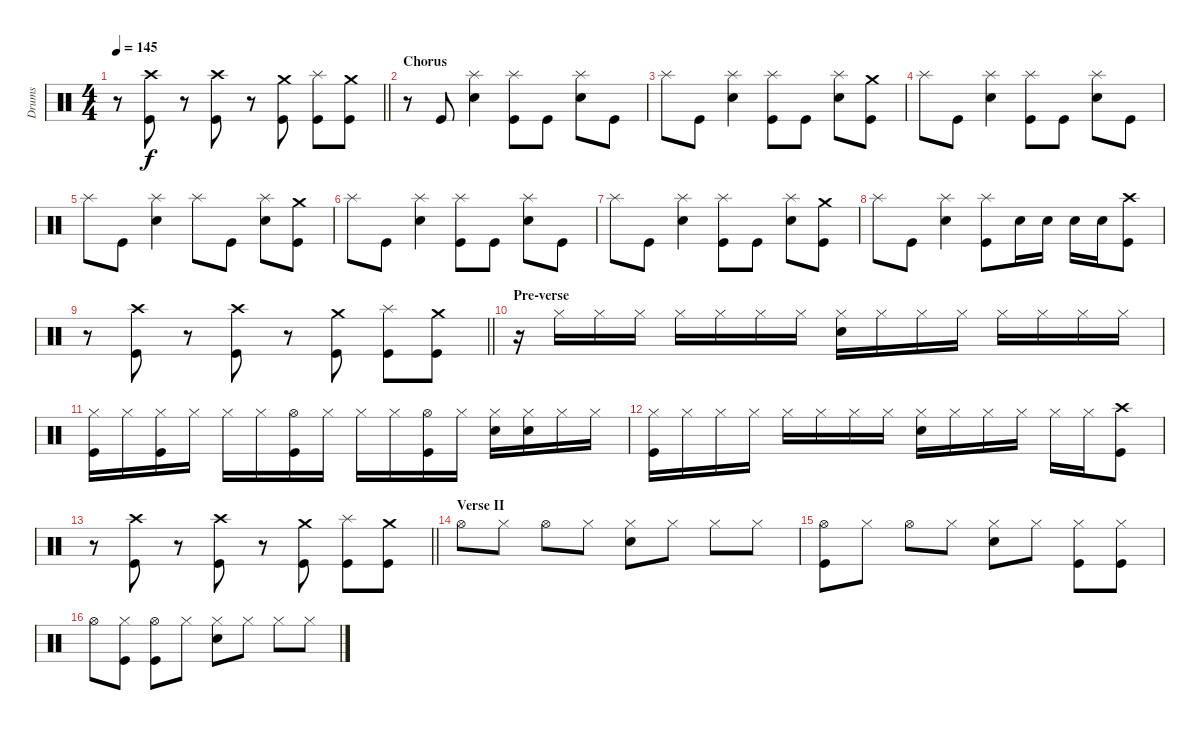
\track ("Drums" "Drums") {instrument percussion}
\staff {score}
\articulation defaults
\ts (4 4)
\tempo 145
\clef neutral
\barLineRight lightlight
\ks c
r.8{dy f} ("Crash high (hit)" "Kick (hit)").8 r.8 ("Crash high (hit)" "Kick (hit)").8 r.8 ("Crash medium (hit)" "Kick (hit)").8 ("Splash (hit)" "Kick (hit)").8 ("Crash medium (hit)" "Kick (hit)").8 |
\section ("" "Chorus")
r.8 "Kick (hit)".8 ("Splash (hit)" "Electric Snare (hit)").4 ("Splash (hit)" "Kick (hit)").8 "Kick (hit)".8 ("Splash (hit)" "Electric Snare (hit)").8 "Kick (hit)".8 |
"Splash (hit)".8 "Kick (hit)".8 ("Splash (hit)" "Electric Snare (hit)").4 ("Splash (hit)" "Kick (hit)").8 "Kick (hit)".8 ("Splash (hit)" "Electric Snare (hit)").8 ("Crash medium (hit)" "Kick (hit)").8 |
"Splash (hit)".8 "Kick (hit)".8 ("Splash (hit)" "Electric Snare (hit)").4 ("Splash (hit)" "Kick (hit)").8 "Kick (hit)".8 ("Splash (hit)" "Electric Snare (hit)").8 "Kick (hit)".8 |
"Splash (hit)".8 "Kick (hit)".8 ("Splash (hit)" "Electric Snare (hit)").4 "Splash (hit)".8 "Kick (hit)".8 ("Splash (hit)" "Electric Snare (hit)").8 ("Crash medium (hit)" "Kick (hit)").8 |
"Splash (hit)".8 "Kick (hit)".8 ("Splash (hit)" "Electric Snare (hit)").4 ("Splash (hit)" "Kick (hit)").8 "Kick (hit)".8 ("Splash (hit)" "Electric Snare (hit)").8 "Kick (hit)".8 |
"Splash (hit)".8 "Kick (hit)".8 ("Splash (hit)" "Electric Snare (hit)").4 ("Splash (hit)" "Kick (hit)").8 "Kick (hit)".8 ("Splash (hit)" "Electric Snare (hit)").8 ("Crash medium (hit)" "Kick (hit)").8 |
"Splash (hit)".8 "Kick (hit)".8 ("Splash (hit)" "Electric Snare (hit)").4 ("Splash (hit)" "Kick (hit)").8 "Electric Snare (hit)".16 "Electric Snare (hit)".16 "Electric Snare (hit)".16 "Electric Snare (hit)".16 ("Crash high (hit)" "Kick (hit)").8 |
\barLineRight lightlight
r.8 ("Crash high (hit)" "Kick (hit)").8 r.8 ("Crash high (hit)" "Kick (hit)").8 r.8 ("Crash medium (hit)" "Kick (hit)").8 ("Splash (hit)" "Kick (hit)").8 ("Crash medium (hit)" "Kick (hit)").8 |
\section ("" "Pre-verse")
r.16 "Hi-Hat (closed)".16 "Hi-Hat (closed)".16 "Hi-Hat (closed)".16 "Hi-Hat (closed)".16 "Hi-Hat (closed)".16 "Hi-Hat (closed)".16 "Hi-Hat (closed)".16 ("Hi-Hat (closed)" "Electric Snare (hit)").16 "Hi-Hat (closed)".16 "Hi-Hat (closed)".16 "Hi-Hat (closed)".16 "Hi-Hat (closed)".16 "Hi-Hat (closed)".16 "Hi-Hat (closed)".16 "Hi-Hat (closed)".16 |
("Hi-Hat (closed)" "Kick (hit)").16 "Hi-Hat (closed)".16 ("Hi-Hat (closed)" "Kick (hit)").16 "Hi-Hat (closed)".16 "Hi-Hat (closed)".16 "Hi-Hat (closed)".16 ("Hi-Hat (open)" "Kick (hit)").16 "Hi-Hat (closed)".16 "Hi-Hat (closed)".16 "Hi-Hat (closed)".16 ("Hi-Hat (open)" "Kick (hit)").16 "Hi-Hat (closed)".16 ("Hi-Hat (closed)" "Electric Snare (hit)").16 ("Hi-Hat (closed)" "Electric Snare (hit)").16 "Hi-Hat (closed)".16 "Hi-Hat (closed)".16 |
("Hi-Hat (closed)" "Kick (hit)").16 "Hi-Hat (closed)".16 "Hi-Hat (closed)".16 "Hi-Hat (closed)".16 "Hi-Hat (closed)".16 "Hi-Hat (closed)".16 "Hi-Hat (closed)".16 "Hi-Hat (closed)".16 ("Hi-Hat (closed)" "Electric Snare (hit)").16 "Hi-Hat (closed)".16 "Hi-Hat (closed)".16 "Hi-Hat (closed)".16 "Hi-Hat (closed)".16 "Hi-Hat (closed)".16 ("Crash high (hit)" "Kick (hit)").8 |
\barLineRight lightlight
r.8 ("Crash high (hit)" "Kick (hit)").8 r.8 ("Crash high (hit)" "Kick (hit)").8 r.8 ("Crash medium (hit)" "Kick (hit)").8 ("Splash (hit)" "Kick (hit)").8 ("Crash medium (hit)" "Kick (hit)").8 |
\section ("" "Verse II")
"Hi-Hat (open)".8 "Hi-Hat (closed)".8 "Hi-Hat (open)".8 "Hi-Hat (closed)".8 ("Hi-Hat (closed)" "Electric Snare (hit)").8 "Hi-Hat (closed)".8 "Hi-Hat (closed)".8 "Hi-Hat (closed)".8 |
("Hi-Hat (open)" "Kick (hit)").8 "Hi-Hat (closed)".8 "Hi-Hat (open)".8 "Hi-Hat (closed)".8 ("Hi-Hat (closed)" "Electric Snare (hit)").8 "Hi-Hat (closed)".8 ("Hi-Hat (closed)" "Kick (hit)").8 ("Hi-Hat (closed)" "Kick (hit)").8 |
"Hi-Hat (open)".8 ("Hi-Hat (closed)" "Kick (hit)").8 ("Hi-Hat (open)" "Kick (hit)").8 "Hi-Hat (closed)".8 ("Hi-Hat (closed)" "Electric Snare (hit)").8 "Hi-Hat (closed)".8 "Hi-Hat (closed)".8 "Hi-Hat (closed)".8
